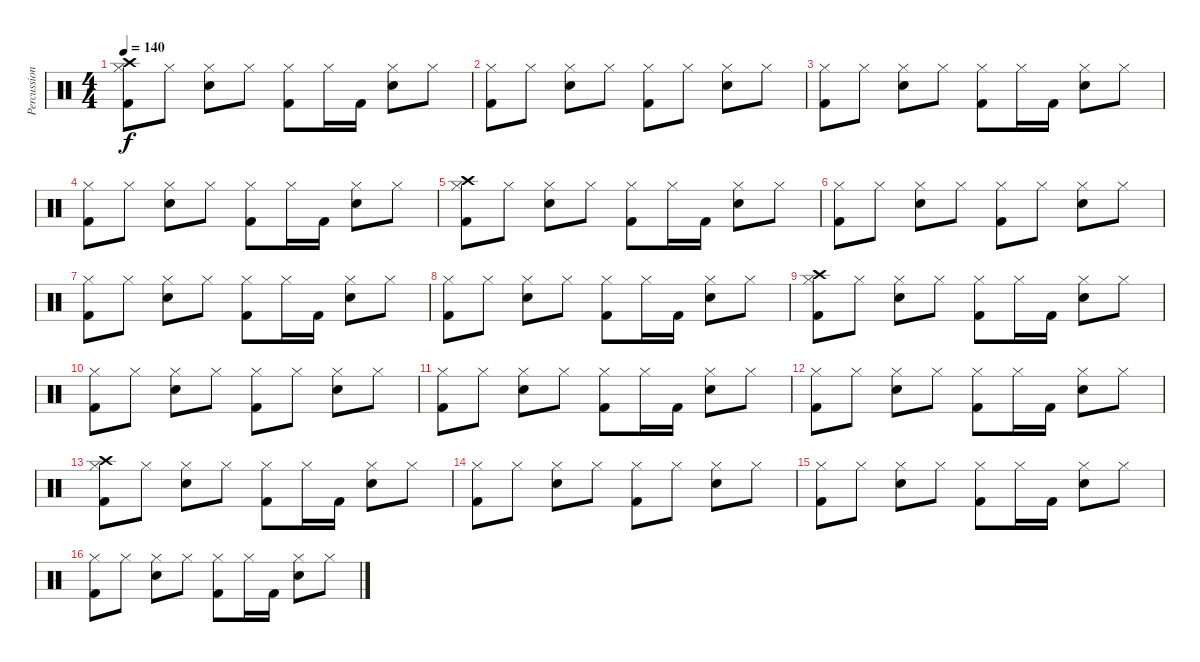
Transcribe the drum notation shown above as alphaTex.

\track ("Percussion" "Percussion") {instrument percussion}
\staff {score}
\articulation defaults
\ts (4 4)
\tempo 140
\clef neutral
\ks c
("Crash high (hit)" "Hi-Hat (closed)" "Kick (hit) 2").8{dy f} "Hi-Hat (closed)".8 ("Hi-Hat (closed)" "Electric Snare (hit)").8 "Hi-Hat (closed)".8 ("Hi-Hat (closed)" "Kick (hit) 2").8 "Hi-Hat (closed)".16 "Kick (hit) 2".16 ("Hi-Hat (closed)" "Electric Snare (hit)").8 "Hi-Hat (closed)".8 |
("Hi-Hat (closed)" "Kick (hit) 2").8 "Hi-Hat (closed)".8 ("Hi-Hat (closed)" "Electric Snare (hit)").8 "Hi-Hat (closed)".8 ("Hi-Hat (closed)" "Kick (hit) 2").8 "Hi-Hat (closed)".8 ("Hi-Hat (closed)" "Electric Snare (hit)").8 "Hi-Hat (closed)".8 |
("Hi-Hat (closed)" "Kick (hit) 2").8 "Hi-Hat (closed)".8 ("Hi-Hat (closed)" "Electric Snare (hit)").8 "Hi-Hat (closed)".8 ("Hi-Hat (closed)" "Kick (hit) 2").8 "Hi-Hat (closed)".16 "Kick (hit) 2".16 ("Hi-Hat (closed)" "Electric Snare (hit)").8 "Hi-Hat (closed)".8 |
("Hi-Hat (closed)" "Kick (hit) 2").8 "Hi-Hat (closed)".8 ("Hi-Hat (closed)" "Electric Snare (hit)").8 "Hi-Hat (closed)".8 ("Hi-Hat (closed)" "Kick (hit) 2").8 "Hi-Hat (closed)".16 "Kick (hit) 2".16 ("Hi-Hat (closed)" "Electric Snare (hit)").8 "Hi-Hat (closed)".8 |
("Crash high (hit)" "Hi-Hat (closed)" "Kick (hit) 2").8 "Hi-Hat (closed)".8 ("Hi-Hat (closed)" "Electric Snare (hit)").8 "Hi-Hat (closed)".8 ("Hi-Hat (closed)" "Kick (hit) 2").8 "Hi-Hat (closed)".16 "Kick (hit) 2".16 ("Hi-Hat (closed)" "Electric Snare (hit)").8 "Hi-Hat (closed)".8 |
("Hi-Hat (closed)" "Kick (hit) 2").8 "Hi-Hat (closed)".8 ("Hi-Hat (closed)" "Electric Snare (hit)").8 "Hi-Hat (closed)".8 ("Hi-Hat (closed)" "Kick (hit) 2").8 "Hi-Hat (closed)".8 ("Hi-Hat (closed)" "Electric Snare (hit)").8 "Hi-Hat (closed)".8 |
("Hi-Hat (closed)" "Kick (hit) 2").8 "Hi-Hat (closed)".8 ("Hi-Hat (closed)" "Electric Snare (hit)").8 "Hi-Hat (closed)".8 ("Hi-Hat (closed)" "Kick (hit) 2").8 "Hi-Hat (closed)".16 "Kick (hit) 2".16 ("Hi-Hat (closed)" "Electric Snare (hit)").8 "Hi-Hat (closed)".8 |
("Hi-Hat (closed)" "Kick (hit) 2").8 "Hi-Hat (closed)".8 ("Hi-Hat (closed)" "Electric Snare (hit)").8 "Hi-Hat (closed)".8 ("Hi-Hat (closed)" "Kick (hit) 2").8 "Hi-Hat (closed)".16 "Kick (hit) 2".16 ("Hi-Hat (closed)" "Electric Snare (hit)").8 "Hi-Hat (closed)".8 |
("Crash high (hit)" "Hi-Hat (closed)" "Kick (hit) 2").8 "Hi-Hat (closed)".8 ("Hi-Hat (closed)" "Electric Snare (hit)").8 "Hi-Hat (closed)".8 ("Hi-Hat (closed)" "Kick (hit) 2").8 "Hi-Hat (closed)".16 "Kick (hit) 2".16 ("Hi-Hat (closed)" "Electric Snare (hit)").8 "Hi-Hat (closed)".8 |
("Hi-Hat (closed)" "Kick (hit) 2").8 "Hi-Hat (closed)".8 ("Hi-Hat (closed)" "Electric Snare (hit)").8 "Hi-Hat (closed)".8 ("Hi-Hat (closed)" "Kick (hit) 2").8 "Hi-Hat (closed)".8 ("Hi-Hat (closed)" "Electric Snare (hit)").8 "Hi-Hat (closed)".8 |
("Hi-Hat (closed)" "Kick (hit) 2").8 "Hi-Hat (closed)".8 ("Hi-Hat (closed)" "Electric Snare (hit)").8 "Hi-Hat (closed)".8 ("Hi-Hat (closed)" "Kick (hit) 2").8 "Hi-Hat (closed)".16 "Kick (hit) 2".16 ("Hi-Hat (closed)" "Electric Snare (hit)").8 "Hi-Hat (closed)".8 |
("Hi-Hat (closed)" "Kick (hit) 2").8 "Hi-Hat (closed)".8 ("Hi-Hat (closed)" "Electric Snare (hit)").8 "Hi-Hat (closed)".8 ("Hi-Hat (closed)" "Kick (hit) 2").8 "Hi-Hat (closed)".16 "Kick (hit) 2".16 ("Hi-Hat (closed)" "Electric Snare (hit)").8 "Hi-Hat (closed)".8 |
("Crash high (hit)" "Hi-Hat (closed)" "Kick (hit) 2").8 "Hi-Hat (closed)".8 ("Hi-Hat (closed)" "Electric Snare (hit)").8 "Hi-Hat (closed)".8 ("Hi-Hat (closed)" "Kick (hit) 2").8 "Hi-Hat (closed)".16 "Kick (hit) 2".16 ("Hi-Hat (closed)" "Electric Snare (hit)").8 "Hi-Hat (closed)".8 |
("Hi-Hat (closed)" "Kick (hit) 2").8 "Hi-Hat (closed)".8 ("Hi-Hat (closed)" "Electric Snare (hit)").8 "Hi-Hat (closed)".8 ("Hi-Hat (closed)" "Kick (hit) 2").8 "Hi-Hat (closed)".8 ("Hi-Hat (closed)" "Electric Snare (hit)").8 "Hi-Hat (closed)".8 |
("Hi-Hat (closed)" "Kick (hit) 2").8 "Hi-Hat (closed)".8 ("Hi-Hat (closed)" "Electric Snare (hit)").8 "Hi-Hat (closed)".8 ("Hi-Hat (closed)" "Kick (hit) 2").8 "Hi-Hat (closed)".16 "Kick (hit) 2".16 ("Hi-Hat (closed)" "Electric Snare (hit)").8 "Hi-Hat (closed)".8 |
("Hi-Hat (closed)" "Kick (hit) 2").8 "Hi-Hat (closed)".8 ("Hi-Hat (closed)" "Electric Snare (hit)").8 "Hi-Hat (closed)".8 ("Hi-Hat (closed)" "Kick (hit) 2").8 "Hi-Hat (closed)".16 "Kick (hit) 2".16 ("Hi-Hat (closed)" "Electric Snare (hit)").8 "Hi-Hat (closed)".8
